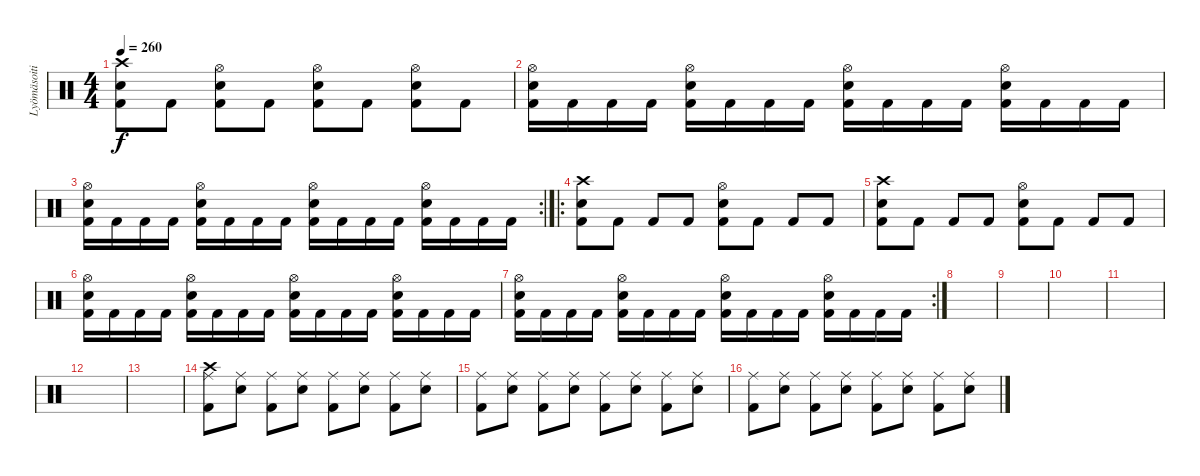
\track ("Lyömäsoitin" "Lyömäsoiti") {instrument percussion}
\staff {score}
\articulation defaults
\ts (4 4)
\tempo 260
\clef neutral
\ks c
("Crash high (hit)" "Electric Snare (hit)" "Kick (hit) 2").8{dy f} "Kick (hit) 2".8 ("Hi-Hat (open)" "Electric Snare (hit)" "Kick (hit) 2").8 "Kick (hit) 2".8 ("Electric Snare (hit)" "Hi-Hat (open)" "Kick (hit) 2").8 "Kick (hit) 2".8 ("Hi-Hat (open)" "Electric Snare (hit)" "Kick (hit) 2").8 "Kick (hit) 2".8 |
("Hi-Hat (open)" "Electric Snare (hit)" "Kick (hit) 2").16 "Kick (hit) 2".16 "Kick (hit) 2".16 "Kick (hit) 2".16 ("Hi-Hat (open)" "Electric Snare (hit)" "Kick (hit) 2").16 "Kick (hit) 2".16 "Kick (hit) 2".16 "Kick (hit) 2".16 ("Hi-Hat (open)" "Electric Snare (hit)" "Kick (hit) 2").16 "Kick (hit) 2".16 "Kick (hit) 2".16 "Kick (hit) 2".16 ("Hi-Hat (open)" "Electric Snare (hit)" "Kick (hit) 2").16 "Kick (hit) 2".16 "Kick (hit) 2".16 "Kick (hit) 2".16 |
\rc 2
("Hi-Hat (open)" "Electric Snare (hit)" "Kick (hit) 2").16 "Kick (hit) 2".16 "Kick (hit) 2".16 "Kick (hit) 2".16 ("Hi-Hat (open)" "Electric Snare (hit)" "Kick (hit) 2").16 "Kick (hit) 2".16 "Kick (hit) 2".16 "Kick (hit) 2".16 ("Hi-Hat (open)" "Electric Snare (hit)" "Kick (hit) 2").16 "Kick (hit) 2".16 "Kick (hit) 2".16 "Kick (hit) 2".16 ("Hi-Hat (open)" "Electric Snare (hit)" "Kick (hit) 2").16 "Kick (hit) 2".16 "Kick (hit) 2".16 "Kick (hit) 2".16 |
\ro
("Crash high (hit)" "Electric Snare (hit)" "Kick (hit) 2").8 "Kick (hit) 2".8 "Kick (hit) 2".8 "Kick (hit) 2".8 ("Electric Snare (hit)" "Hi-Hat (open)" "Kick (hit) 2").8 "Kick (hit) 2".8 "Kick (hit) 2".8 "Kick (hit) 2".8 |
("Crash high (hit)" "Electric Snare (hit)" "Kick (hit) 2").8 "Kick (hit) 2".8 "Kick (hit) 2".8 "Kick (hit) 2".8 ("Electric Snare (hit)" "Hi-Hat (open)" "Kick (hit) 2").8 "Kick (hit) 2".8 "Kick (hit) 2".8 "Kick (hit) 2".8 |
("Hi-Hat (open)" "Electric Snare (hit)" "Kick (hit) 2").16 "Kick (hit) 2".16 "Kick (hit) 2".16 "Kick (hit) 2".16 ("Hi-Hat (open)" "Electric Snare (hit)" "Kick (hit) 2").16 "Kick (hit) 2".16 "Kick (hit) 2".16 "Kick (hit) 2".16 ("Hi-Hat (open)" "Electric Snare (hit)" "Kick (hit) 2").16 "Kick (hit) 2".16 "Kick (hit) 2".16 "Kick (hit) 2".16 ("Hi-Hat (open)" "Electric Snare (hit)" "Kick (hit) 2").16 "Kick (hit) 2".16 "Kick (hit) 2".16 "Kick (hit) 2".16 |
\rc 2
("Hi-Hat (open)" "Electric Snare (hit)" "Kick (hit) 2").16 "Kick (hit) 2".16 "Kick (hit) 2".16 "Kick (hit) 2".16 ("Hi-Hat (open)" "Electric Snare (hit)" "Kick (hit) 2").16 "Kick (hit) 2".16 "Kick (hit) 2".16 "Kick (hit) 2".16 ("Hi-Hat (open)" "Electric Snare (hit)" "Kick (hit) 2").16 "Kick (hit) 2".16 "Kick (hit) 2".16 "Kick (hit) 2".16 ("Hi-Hat (open)" "Electric Snare (hit)" "Kick (hit) 2").16 "Kick (hit) 2".16 "Kick (hit) 2".16 "Kick (hit) 2".16 |
|
|
|
|
|
|
("Crash high (hit)" "Ride (middle)" "Kick (hit) 2").8 ("Ride (middle)" "Electric Snare (hit)").8 ("Ride (middle)" "Kick (hit) 2").8 ("Ride (middle)" "Electric Snare (hit)").8 ("Ride (middle)" "Kick (hit) 2").8 ("Ride (middle)" "Electric Snare (hit)").8 ("Ride (middle)" "Kick (hit) 2").8 ("Ride (middle)" "Electric Snare (hit)").8 |
("Ride (middle)" "Kick (hit) 2").8 ("Ride (middle)" "Electric Snare (hit)").8 ("Ride (middle)" "Kick (hit) 2").8 ("Ride (middle)" "Electric Snare (hit)").8 ("Ride (middle)" "Kick (hit) 2").8 ("Ride (middle)" "Electric Snare (hit)").8 ("Ride (middle)" "Kick (hit) 2").8 ("Ride (middle)" "Electric Snare (hit)").8 |
("Ride (middle)" "Kick (hit) 2").8 ("Ride (middle)" "Electric Snare (hit)").8 ("Ride (middle)" "Kick (hit) 2").8 ("Ride (middle)" "Electric Snare (hit)").8 ("Ride (middle)" "Kick (hit) 2").8 ("Ride (middle)" "Electric Snare (hit)").8 ("Ride (middle)" "Kick (hit) 2").8 ("Ride (middle)" "Electric Snare (hit)").8
